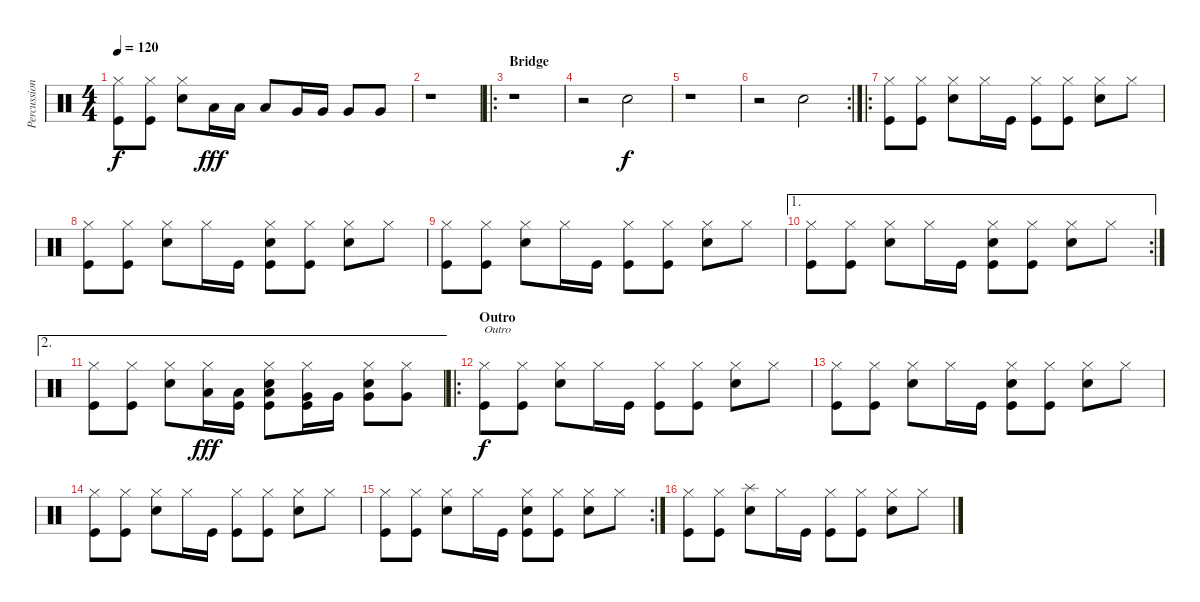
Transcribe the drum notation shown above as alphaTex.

\track ("Percussion" "Percussion") {instrument percussion}
\staff {score}
\articulation defaults
\ts (4 4)
\tempo 120
\clef neutral
\ks c
("Hi-Hat (closed)" "Kick (hit)").8{dy f} ("Hi-Hat (closed)" "Kick (hit)").8 ("Hi-Hat (closed)" "Snare (hit) 2").8 "Low Tom (hit)".16{dy fff} "Low Tom (hit)".16 "Low Tom (hit)".8 "Very Low Tom (hit)".16 "Very Low Tom (hit)".16 "Very Low Tom (hit)".8 "Very Low Tom (hit)".8 |
r.1 |
\ro
\section ("" "Bridge")
r.1 |
r.2 "Hand Clap (hit)".2{dy f} |
r.1 |
\rc 2
r.2 "Hand Clap (hit)".2 |
\ro
("Hi-Hat (closed)" "Kick (hit)").8 ("Hi-Hat (closed)" "Kick (hit)").8 ("Hi-Hat (closed)" "Snare (hit) 2").8 "Hi-Hat (closed)".16 "Kick (hit)".16 ("Hi-Hat (closed)" "Kick (hit)").8 ("Hi-Hat (closed)" "Kick (hit)").8 ("Hi-Hat (closed)" "Snare (hit) 2").8 "Hi-Hat (closed)".8 |
("Hi-Hat (closed)" "Kick (hit)").8 ("Hi-Hat (closed)" "Kick (hit)").8 ("Hi-Hat (closed)" "Snare (hit) 2").8 "Hi-Hat (closed)".16 "Kick (hit)".16 ("Hi-Hat (closed)" "Hand Clap (hit)" "Kick (hit)").8 ("Hi-Hat (closed)" "Kick (hit)").8 ("Hi-Hat (closed)" "Snare (hit) 2").8 "Hi-Hat (closed)".8 |
("Hi-Hat (closed)" "Kick (hit)").8 ("Hi-Hat (closed)" "Kick (hit)").8 ("Hi-Hat (closed)" "Snare (hit) 2").8 "Hi-Hat (closed)".16 "Kick (hit)".16 ("Hi-Hat (closed)" "Kick (hit)").8 ("Hi-Hat (closed)" "Kick (hit)").8 ("Hi-Hat (closed)" "Snare (hit) 2").8 "Hi-Hat (closed)".8 |
\ae 1
\rc 2
("Hi-Hat (closed)" "Kick (hit)").8 ("Hi-Hat (closed)" "Kick (hit)").8 ("Hi-Hat (closed)" "Snare (hit) 2").8 "Hi-Hat (closed)".16 "Kick (hit)".16 ("Hi-Hat (closed)" "Hand Clap (hit)" "Kick (hit)").8 ("Hi-Hat (closed)" "Kick (hit)").8 ("Hi-Hat (closed)" "Snare (hit) 2").8 "Hi-Hat (closed)".8 |
\ae 2
("Hi-Hat (closed)" "Kick (hit)").8 ("Hi-Hat (closed)" "Kick (hit)").8 ("Hi-Hat (closed)" "Snare (hit) 2").8 ("Hi-Hat (closed)" "Low Tom (hit)").16{dy fff} ("Low Tom (hit)" "Kick (hit)").16 ("Hi-Hat (closed)" "Low Tom (hit)" "Hand Clap (hit)" "Kick (hit)").8 ("Hi-Hat (closed)" "Very Low Tom (hit)" "Kick (hit)").16 "Very Low Tom (hit)".16 ("Hi-Hat (closed)" "Very Low Tom (hit)" "Snare (hit) 2").8 ("Hi-Hat (closed)" "Very Low Tom (hit)").8 |
\ro
\section ("" "Outro")
("Hi-Hat (closed)" "Kick (hit)").8{txt "Outro" dy f} ("Hi-Hat (closed)" "Kick (hit)").8 ("Hi-Hat (closed)" "Snare (hit) 2").8 "Hi-Hat (closed)".16 "Kick (hit)".16 ("Hi-Hat (closed)" "Kick (hit)").8 ("Hi-Hat (closed)" "Kick (hit)").8 ("Hi-Hat (closed)" "Snare (hit) 2").8 "Hi-Hat (closed)".8 |
("Hi-Hat (closed)" "Kick (hit)").8 ("Hi-Hat (closed)" "Kick (hit)").8 ("Hi-Hat (closed)" "Snare (hit) 2").8 "Hi-Hat (closed)".16 "Kick (hit)".16 ("Hi-Hat (closed)" "Hand Clap (hit)" "Kick (hit)").8 ("Hi-Hat (closed)" "Kick (hit)").8 ("Hi-Hat (closed)" "Snare (hit) 2").8 "Hi-Hat (closed)".8 |
("Hi-Hat (closed)" "Kick (hit)").8 ("Hi-Hat (closed)" "Kick (hit)").8 ("Hi-Hat (closed)" "Snare (hit) 2").8 "Hi-Hat (closed)".16 "Kick (hit)".16 ("Hi-Hat (closed)" "Kick (hit)").8 ("Hi-Hat (closed)" "Kick (hit)").8 ("Hi-Hat (closed)" "Snare (hit) 2").8 "Hi-Hat (closed)".8 |
\rc 2
("Hi-Hat (closed)" "Kick (hit)").8 ("Hi-Hat (closed)" "Kick (hit)").8 ("Hi-Hat (closed)" "Snare (hit) 2").8 "Hi-Hat (closed)".16 "Kick (hit)".16 ("Hi-Hat (closed)" "Hand Clap (hit)" "Kick (hit)").8 ("Hi-Hat (closed)" "Kick (hit)").8 ("Hi-Hat (closed)" "Snare (hit) 2").8 "Hi-Hat (closed)".8 |
("Hi-Hat (closed)" "Kick (hit)").8 ("Hi-Hat (closed)" "Kick (hit)").8 ("Splash (hit)" "Snare (hit) 2").8 "Hi-Hat (closed)".16 "Kick (hit)".16 ("Hi-Hat (closed)" "Kick (hit)").8 ("Hi-Hat (closed)" "Kick (hit)").8 ("Hi-Hat (closed)" "Snare (hit) 2").8 "Hi-Hat (closed)".8
